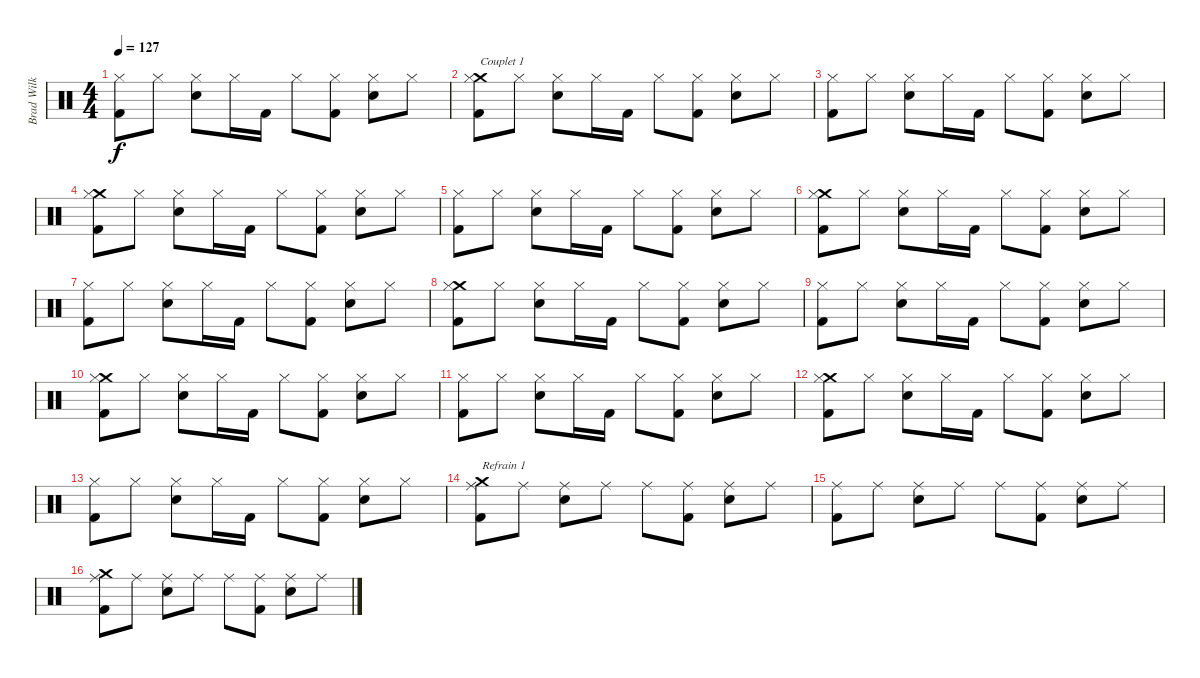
\track ("Brad Wilk" "Brad Wilk") {instrument percussion}
\staff {score}
\articulation defaults
\ts (4 4)
\tempo 127
\clef neutral
\ks c
("Hi-Hat (closed)" "Kick (hit) 2").8{dy f} "Hi-Hat (closed)".8 ("Electric Snare (hit)" "Hi-Hat (closed)").8 "Hi-Hat (closed)".16 "Kick (hit) 2".16 "Hi-Hat (closed)".8 ("Hi-Hat (closed)" "Kick (hit) 2").8 ("Electric Snare (hit)" "Hi-Hat (closed)").8 "Hi-Hat (closed)".8 |
("Crash medium (hit)" "Hi-Hat (closed)" "Kick (hit) 2").8{txt "Couplet 1"} "Hi-Hat (closed)".8 ("Electric Snare (hit)" "Hi-Hat (closed)").8 "Hi-Hat (closed)".16 "Kick (hit) 2".16 "Hi-Hat (closed)".8 ("Hi-Hat (closed)" "Kick (hit) 2").8 ("Electric Snare (hit)" "Hi-Hat (closed)").8 "Hi-Hat (closed)".8 |
("Hi-Hat (closed)" "Kick (hit) 2").8 "Hi-Hat (closed)".8 ("Electric Snare (hit)" "Hi-Hat (closed)").8 "Hi-Hat (closed)".16 "Kick (hit) 2".16 "Hi-Hat (closed)".8 ("Hi-Hat (closed)" "Kick (hit) 2").8 ("Electric Snare (hit)" "Hi-Hat (closed)").8 "Hi-Hat (closed)".8 |
("Crash medium (hit)" "Hi-Hat (closed)" "Kick (hit) 2").8 "Hi-Hat (closed)".8 ("Electric Snare (hit)" "Hi-Hat (closed)").8 "Hi-Hat (closed)".16 "Kick (hit) 2".16 "Hi-Hat (closed)".8 ("Hi-Hat (closed)" "Kick (hit) 2").8 ("Electric Snare (hit)" "Hi-Hat (closed)").8 "Hi-Hat (closed)".8 |
("Hi-Hat (closed)" "Kick (hit) 2").8 "Hi-Hat (closed)".8 ("Electric Snare (hit)" "Hi-Hat (closed)").8 "Hi-Hat (closed)".16 "Kick (hit) 2".16 "Hi-Hat (closed)".8 ("Hi-Hat (closed)" "Kick (hit) 2").8 ("Electric Snare (hit)" "Hi-Hat (closed)").8 "Hi-Hat (closed)".8 |
("Crash medium (hit)" "Hi-Hat (closed)" "Kick (hit) 2").8 "Hi-Hat (closed)".8 ("Electric Snare (hit)" "Hi-Hat (closed)").8 "Hi-Hat (closed)".16 "Kick (hit) 2".16 "Hi-Hat (closed)".8 ("Hi-Hat (closed)" "Kick (hit) 2").8 ("Electric Snare (hit)" "Hi-Hat (closed)").8 "Hi-Hat (closed)".8 |
("Hi-Hat (closed)" "Kick (hit) 2").8 "Hi-Hat (closed)".8 ("Electric Snare (hit)" "Hi-Hat (closed)").8 "Hi-Hat (closed)".16 "Kick (hit) 2".16 "Hi-Hat (closed)".8 ("Hi-Hat (closed)" "Kick (hit) 2").8 ("Electric Snare (hit)" "Hi-Hat (closed)").8 "Hi-Hat (closed)".8 |
("Crash medium (hit)" "Hi-Hat (closed)" "Kick (hit) 2").8 "Hi-Hat (closed)".8 ("Electric Snare (hit)" "Hi-Hat (closed)").8 "Hi-Hat (closed)".16 "Kick (hit) 2".16 "Hi-Hat (closed)".8 ("Hi-Hat (closed)" "Kick (hit) 2").8 ("Electric Snare (hit)" "Hi-Hat (closed)").8 "Hi-Hat (closed)".8 |
("Hi-Hat (closed)" "Kick (hit) 2").8 "Hi-Hat (closed)".8 ("Electric Snare (hit)" "Hi-Hat (closed)").8 "Hi-Hat (closed)".16 "Kick (hit) 2".16 "Hi-Hat (closed)".8 ("Hi-Hat (closed)" "Kick (hit) 2").8 ("Electric Snare (hit)" "Hi-Hat (closed)").8 "Hi-Hat (closed)".8 |
("Crash medium (hit)" "Hi-Hat (closed)" "Kick (hit) 2").8 "Hi-Hat (closed)".8 ("Electric Snare (hit)" "Hi-Hat (closed)").8 "Hi-Hat (closed)".16 "Kick (hit) 2".16 "Hi-Hat (closed)".8 ("Hi-Hat (closed)" "Kick (hit) 2").8 ("Electric Snare (hit)" "Hi-Hat (closed)").8 "Hi-Hat (closed)".8 |
("Hi-Hat (closed)" "Kick (hit) 2").8 "Hi-Hat (closed)".8 ("Electric Snare (hit)" "Hi-Hat (closed)").8 "Hi-Hat (closed)".16 "Kick (hit) 2".16 "Hi-Hat (closed)".8 ("Hi-Hat (closed)" "Kick (hit) 2").8 ("Electric Snare (hit)" "Hi-Hat (closed)").8 "Hi-Hat (closed)".8 |
("Crash medium (hit)" "Hi-Hat (closed)" "Kick (hit) 2").8 "Hi-Hat (closed)".8 ("Electric Snare (hit)" "Hi-Hat (closed)").8 "Hi-Hat (closed)".16 "Kick (hit) 2".16 "Hi-Hat (closed)".8 ("Hi-Hat (closed)" "Kick (hit) 2").8 ("Electric Snare (hit)" "Hi-Hat (closed)").8 "Hi-Hat (closed)".8 |
("Hi-Hat (closed)" "Kick (hit) 2").8 "Hi-Hat (closed)".8 ("Electric Snare (hit)" "Hi-Hat (closed)").8 "Hi-Hat (closed)".16 "Kick (hit) 2".16 "Hi-Hat (closed)".8 ("Hi-Hat (closed)" "Kick (hit) 2").8 ("Electric Snare (hit)" "Hi-Hat (closed)").8 "Hi-Hat (closed)".8 |
("Crash medium (hit)" "Ride (middle)" "Kick (hit) 2").8{txt "Refrain 1"} "Ride (middle)".8 ("Electric Snare (hit)" "Ride (middle)").8 "Ride (middle)".8 "Ride (middle)".8 ("Ride (middle)" "Kick (hit) 2").8 ("Electric Snare (hit)" "Ride (middle)").8 "Ride (middle)".8 |
("Ride (middle)" "Kick (hit) 2").8 "Ride (middle)".8 ("Electric Snare (hit)" "Ride (middle)").8 "Ride (middle)".8 "Ride (middle)".8 ("Ride (middle)" "Kick (hit) 2").8 ("Electric Snare (hit)" "Ride (middle)").8 "Ride (middle)".8 |
("Crash medium (hit)" "Ride (middle)" "Kick (hit) 2").8 "Ride (middle)".8 ("Electric Snare (hit)" "Ride (middle)").8 "Ride (middle)".8 "Ride (middle)".8 ("Ride (middle)" "Kick (hit) 2").8 ("Electric Snare (hit)" "Ride (middle)").8 "Ride (middle)".8
